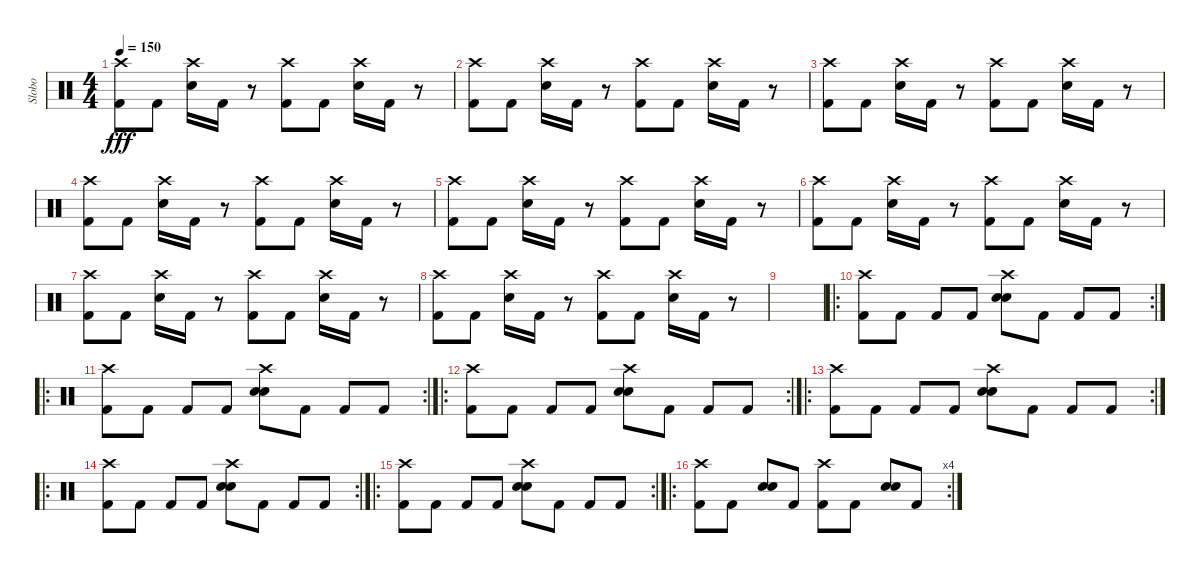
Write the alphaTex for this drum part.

\track ("Slobo" "Slobo") {instrument percussion}
\staff {score}
\articulation defaults
\ts (4 4)
\tempo 150
\clef neutral
\ks c
("Crash high (hit)" "Kick (hit) 2").8{dy fff} "Kick (hit) 2".8 ("Crash high (hit)" "Snare (hit) 2").16 "Kick (hit) 2".16 r.8 ("Crash high (hit)" "Kick (hit) 2").8 "Kick (hit) 2".8 ("Crash high (hit)" "Snare (hit) 2").16 "Kick (hit) 2".16 r.8 |
("Crash high (hit)" "Kick (hit) 2").8 "Kick (hit) 2".8 ("Crash high (hit)" "Snare (hit) 2").16 "Kick (hit) 2".16 r.8 ("Crash high (hit)" "Kick (hit) 2").8 "Kick (hit) 2".8 ("Crash high (hit)" "Snare (hit) 2").16 "Kick (hit) 2".16 r.8 |
("Crash high (hit)" "Kick (hit) 2").8 "Kick (hit) 2".8 ("Crash high (hit)" "Snare (hit) 2").16 "Kick (hit) 2".16 r.8 ("Crash high (hit)" "Kick (hit) 2").8 "Kick (hit) 2".8 ("Crash high (hit)" "Snare (hit) 2").16 "Kick (hit) 2".16 r.8 |
("Crash high (hit)" "Kick (hit) 2").8 "Kick (hit) 2".8 ("Crash high (hit)" "Snare (hit) 2").16 "Kick (hit) 2".16 r.8 ("Crash high (hit)" "Kick (hit) 2").8 "Kick (hit) 2".8 ("Crash high (hit)" "Snare (hit) 2").16 "Kick (hit) 2".16 r.8 |
("Crash high (hit)" "Kick (hit) 2").8 "Kick (hit) 2".8 ("Crash high (hit)" "Snare (hit) 2").16 "Kick (hit) 2".16 r.8 ("Crash high (hit)" "Kick (hit) 2").8 "Kick (hit) 2".8 ("Crash high (hit)" "Snare (hit) 2").16 "Kick (hit) 2".16 r.8 |
("Crash high (hit)" "Kick (hit) 2").8 "Kick (hit) 2".8 ("Crash high (hit)" "Snare (hit) 2").16 "Kick (hit) 2".16 r.8 ("Crash high (hit)" "Kick (hit) 2").8 "Kick (hit) 2".8 ("Crash high (hit)" "Snare (hit) 2").16 "Kick (hit) 2".16 r.8 |
("Crash high (hit)" "Kick (hit) 2").8 "Kick (hit) 2".8 ("Crash high (hit)" "Snare (hit) 2").16 "Kick (hit) 2".16 r.8 ("Crash high (hit)" "Kick (hit) 2").8 "Kick (hit) 2".8 ("Crash high (hit)" "Snare (hit) 2").16 "Kick (hit) 2".16 r.8 |
("Crash high (hit)" "Kick (hit) 2").8 "Kick (hit) 2".8 ("Crash high (hit)" "Snare (hit) 2").16 "Kick (hit) 2".16 r.8 ("Crash high (hit)" "Kick (hit) 2").8 "Kick (hit) 2".8 ("Crash high (hit)" "Snare (hit) 2").16 "Kick (hit) 2".16 r.8 |
|
\ro
\rc 2
("Crash high (hit)" "Kick (hit) 2").8 "Kick (hit) 2".8 "Kick (hit) 2".8 "Kick (hit) 2".8 ("Crash high (hit)" "Snare (hit) 2" "Snare (hit) 2").8{bd 480} "Kick (hit) 2".8 "Kick (hit) 2".8 "Kick (hit) 2".8 |
\ro
\rc 2
("Crash high (hit)" "Kick (hit) 2").8 "Kick (hit) 2".8 "Kick (hit) 2".8 "Kick (hit) 2".8 ("Crash high (hit)" "Snare (hit) 2" "Snare (hit) 2").8{bu 480} "Kick (hit) 2".8 "Kick (hit) 2".8 "Kick (hit) 2".8 |
\ro
\rc 2
("Crash high (hit)" "Kick (hit) 2").8 "Kick (hit) 2".8 "Kick (hit) 2".8 "Kick (hit) 2".8 ("Crash high (hit)" "Snare (hit) 2" "Snare (hit) 2").8{bu 480} "Kick (hit) 2".8 "Kick (hit) 2".8 "Kick (hit) 2".8 |
\ro
\rc 2
("Crash high (hit)" "Kick (hit) 2").8 "Kick (hit) 2".8 "Kick (hit) 2".8 "Kick (hit) 2".8 ("Crash high (hit)" "Snare (hit) 2" "Snare (hit) 2").8{bu 480} "Kick (hit) 2".8 "Kick (hit) 2".8 "Kick (hit) 2".8 |
\ro
\rc 2
("Crash high (hit)" "Kick (hit) 2").8 "Kick (hit) 2".8 "Kick (hit) 2".8 "Kick (hit) 2".8 ("Crash high (hit)" "Snare (hit) 2" "Snare (hit) 2").8{bu 480} "Kick (hit) 2".8 "Kick (hit) 2".8 "Kick (hit) 2".8 |
\ro
\rc 2
("Crash high (hit)" "Kick (hit) 2").8 "Kick (hit) 2".8 "Kick (hit) 2".8 "Kick (hit) 2".8 ("Crash high (hit)" "Snare (hit) 2" "Snare (hit) 2").8{bu 480} "Kick (hit) 2".8 "Kick (hit) 2".8 "Kick (hit) 2".8 |
\ro
\rc 4
("Crash high (hit)" "Kick (hit) 2").8 "Kick (hit) 2".8 ("Snare (hit) 2" "Snare (hit) 2").8{bu 480} "Kick (hit) 2".8 ("Crash high (hit)" "Kick (hit) 2").8 "Kick (hit) 2".8 ("Snare (hit) 2" "Snare (hit) 2").8{bu 480} "Kick (hit) 2".8
